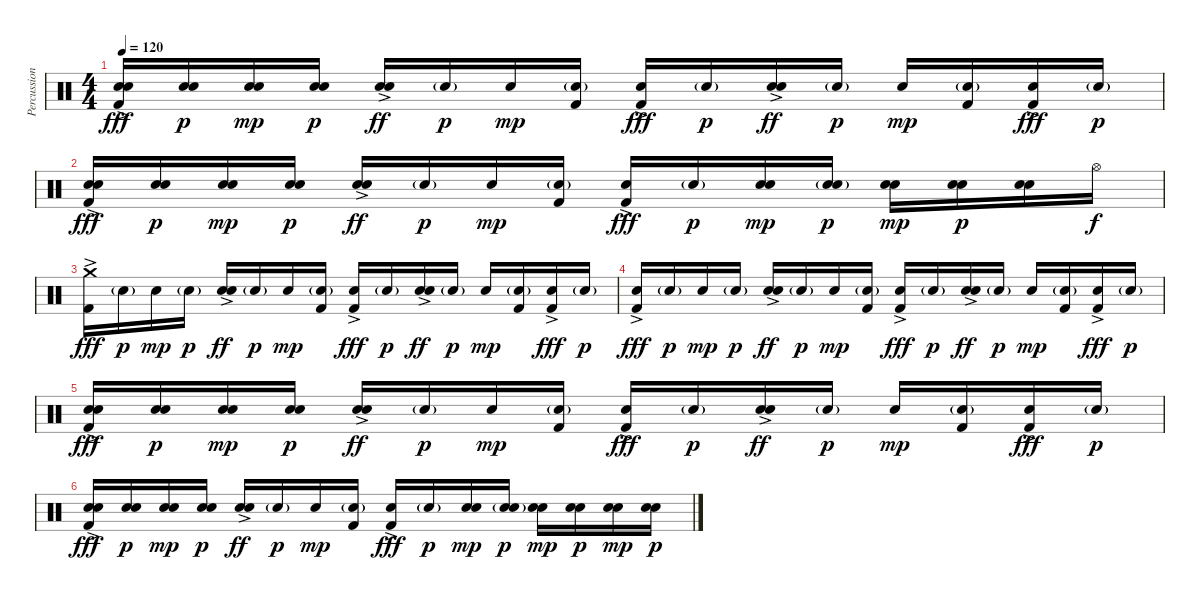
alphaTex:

\track ("Percussion" "Percussion") {instrument percussion}
\staff {score}
\articulation defaults
\ts (4 4)
\tempo 120
\clef neutral
\ks c
("Electric Snare (hit)" "Snare (hit) 2" "Kick (hit) 2"{ac}).16{dy fff} ("Electric Snare (hit)" "Snare (hit) 2").16{dy p} ("Electric Snare (hit)" "Snare (hit) 2").16{dy mp} ("Electric Snare (hit)" "Snare (hit) 2").16{dy p} ("Electric Snare (hit)"{ac} "Snare (hit) 2").16{dy ff} "Electric Snare (hit)"{g}.16{dy p} "Electric Snare (hit)".16{dy mp} ("Electric Snare (hit)"{g} "Kick (hit) 2").16 ("Electric Snare (hit)" "Kick (hit) 2"{ac}).16{dy fff} "Electric Snare (hit)"{g}.16{dy p} ("Electric Snare (hit)"{ac} "Snare (hit) 2").16{dy ff} "Electric Snare (hit)"{g}.16{dy p} "Electric Snare (hit)".16{dy mp} ("Electric Snare (hit)"{g} "Kick (hit) 2").16 ("Electric Snare (hit)" "Kick (hit) 2"{ac}).16{dy fff} "Electric Snare (hit)"{g}.16{dy p} |
("Electric Snare (hit)" "Snare (hit) 2" "Kick (hit) 2"{ac}).16{dy fff} ("Electric Snare (hit)" "Snare (hit) 2").16{dy p} ("Electric Snare (hit)" "Snare (hit) 2").16{dy mp} ("Electric Snare (hit)" "Snare (hit) 2").16{dy p} ("Electric Snare (hit)"{ac} "Snare (hit) 2").16{dy ff} "Electric Snare (hit)"{g}.16{dy p} "Electric Snare (hit)".16{dy mp} ("Electric Snare (hit)"{g} "Kick (hit) 2").16 ("Electric Snare (hit)" "Kick (hit) 2"{ac}).16{dy fff} "Electric Snare (hit)"{g}.16{dy p} ("Electric Snare (hit)" "Snare (hit) 2").16{dy mp} ("Electric Snare (hit)"{g} "Snare (hit) 2").16{dy p} ("Electric Snare (hit)" "Snare (hit) 2").16{dy mp} ("Electric Snare (hit)" "Snare (hit) 2").16{dy p} ("Electric Snare (hit)" "Snare (hit) 2").16 "Hi-Hat (open)".16{dy f} |
("Crash medium (hit)" "Kick (hit) 2"{ac}).16{dy fff} "Electric Snare (hit)"{g}.16{dy p} "Electric Snare (hit)".16{dy mp} "Electric Snare (hit)"{g}.16{dy p} ("Electric Snare (hit)"{ac} "Snare (hit) 2").16{dy ff} "Electric Snare (hit)"{g}.16{dy p} "Electric Snare (hit)".16{dy mp} ("Electric Snare (hit)"{g} "Kick (hit) 2").16 ("Electric Snare (hit)" "Kick (hit) 2"{ac}).16{dy fff} "Electric Snare (hit)"{g}.16{dy p} ("Electric Snare (hit)"{ac} "Snare (hit) 2").16{dy ff} "Electric Snare (hit)"{g}.16{dy p} "Electric Snare (hit)".16{dy mp} ("Electric Snare (hit)"{g} "Kick (hit) 2").16 ("Electric Snare (hit)" "Kick (hit) 2"{ac}).16{dy fff} "Electric Snare (hit)"{g}.16{dy p} |
("Electric Snare (hit)" "Kick (hit) 2"{ac}).16{dy fff} "Electric Snare (hit)"{g}.16{dy p} "Electric Snare (hit)".16{dy mp} "Electric Snare (hit)"{g}.16{dy p} ("Electric Snare (hit)"{ac} "Snare (hit) 2").16{dy ff} "Electric Snare (hit)"{g}.16{dy p} "Electric Snare (hit)".16{dy mp} ("Electric Snare (hit)"{g} "Kick (hit) 2").16 ("Electric Snare (hit)" "Kick (hit) 2"{ac}).16{dy fff} "Electric Snare (hit)"{g}.16{dy p} ("Electric Snare (hit)"{ac} "Snare (hit) 2").16{dy ff} "Electric Snare (hit)"{g}.16{dy p} "Electric Snare (hit)".16{dy mp} ("Electric Snare (hit)"{g} "Kick (hit) 2").16 ("Electric Snare (hit)" "Kick (hit) 2"{ac}).16{dy fff} "Electric Snare (hit)"{g}.16{dy p} |
("Electric Snare (hit)" "Snare (hit) 2" "Kick (hit) 2"{ac}).16{dy fff} ("Electric Snare (hit)" "Snare (hit) 2").16{dy p} ("Electric Snare (hit)" "Snare (hit) 2").16{dy mp} ("Electric Snare (hit)" "Snare (hit) 2").16{dy p} ("Electric Snare (hit)"{ac} "Snare (hit) 2").16{dy ff} "Electric Snare (hit)"{g}.16{dy p} "Electric Snare (hit)".16{dy mp} ("Electric Snare (hit)"{g} "Kick (hit) 2").16 ("Electric Snare (hit)" "Kick (hit) 2"{ac}).16{dy fff} "Electric Snare (hit)"{g}.16{dy p} ("Electric Snare (hit)"{ac} "Snare (hit) 2").16{dy ff} "Electric Snare (hit)"{g}.16{dy p} "Electric Snare (hit)".16{dy mp} ("Electric Snare (hit)"{g} "Kick (hit) 2").16 ("Electric Snare (hit)" "Kick (hit) 2"{ac}).16{dy fff} "Electric Snare (hit)"{g}.16{dy p} |
("Electric Snare (hit)" "Snare (hit) 2" "Kick (hit) 2"{ac}).16{dy fff} ("Electric Snare (hit)" "Snare (hit) 2").16{dy p} ("Electric Snare (hit)" "Snare (hit) 2").16{dy mp} ("Electric Snare (hit)" "Snare (hit) 2").16{dy p} ("Electric Snare (hit)"{ac} "Snare (hit) 2").16{dy ff} "Electric Snare (hit)"{g}.16{dy p} "Electric Snare (hit)".16{dy mp} ("Electric Snare (hit)"{g} "Kick (hit) 2").16 ("Electric Snare (hit)" "Kick (hit) 2"{ac}).16{dy fff} "Electric Snare (hit)"{g}.16{dy p} ("Electric Snare (hit)" "Snare (hit) 2").16{dy mp} ("Electric Snare (hit)"{g} "Snare (hit) 2").16{dy p} ("Electric Snare (hit)" "Snare (hit) 2").16{dy mp} ("Electric Snare (hit)" "Snare (hit) 2").16{dy p} ("Electric Snare (hit)" "Snare (hit) 2").16{dy mp} ("Electric Snare (hit)" "Snare (hit) 2").16{dy p}
